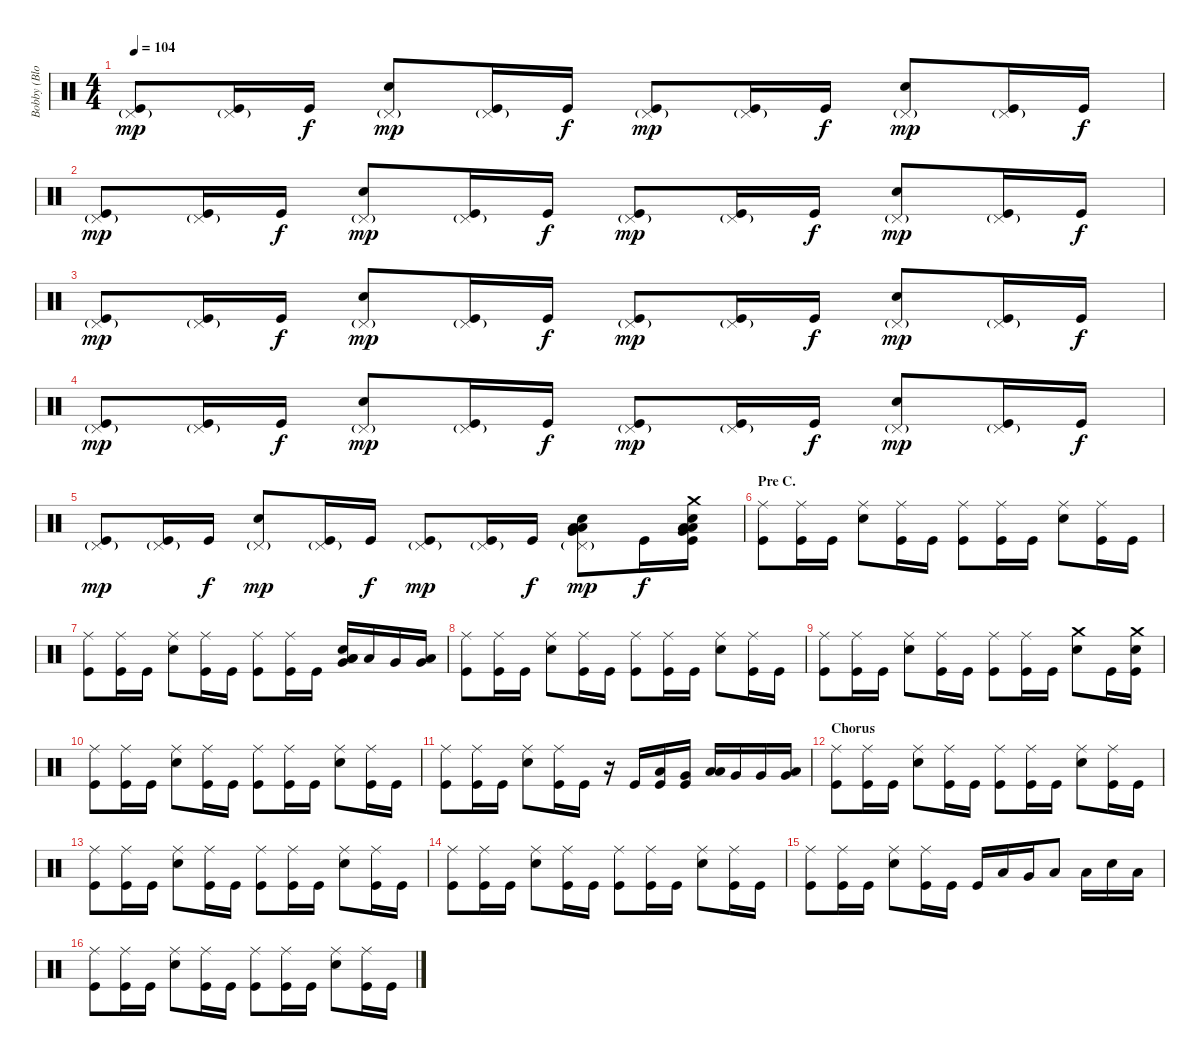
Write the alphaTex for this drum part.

\track ("Bobby (Blotz) Blotzer - Drums" "Bobby (Blo") {instrument percussion}
\staff {score}
\articulation defaults
\ts (4 4)
\tempo 104
\clef neutral
\ks c
("Pedal Hi-Hat (hit)"{g} "Kick (hit)").8{dy mp} ("Pedal Hi-Hat (hit)"{g} "Kick (hit)").16 "Kick (hit)".16{dy f} ("Pedal Hi-Hat (hit)"{g} "Snare (hit) 2").8{dy mp} ("Pedal Hi-Hat (hit)"{g} "Kick (hit)").16 "Kick (hit)".16{dy f} ("Pedal Hi-Hat (hit)"{g} "Kick (hit)").8{dy mp} ("Pedal Hi-Hat (hit)"{g} "Kick (hit)").16 "Kick (hit)".16{dy f} ("Pedal Hi-Hat (hit)"{g} "Snare (hit) 2").8{dy mp} ("Pedal Hi-Hat (hit)"{g} "Kick (hit)").16 "Kick (hit)".16{dy f} |
("Pedal Hi-Hat (hit)"{g} "Kick (hit)").8{dy mp} ("Pedal Hi-Hat (hit)"{g} "Kick (hit)").16 "Kick (hit)".16{dy f} ("Pedal Hi-Hat (hit)"{g} "Snare (hit) 2").8{dy mp} ("Pedal Hi-Hat (hit)"{g} "Kick (hit)").16 "Kick (hit)".16{dy f} ("Pedal Hi-Hat (hit)"{g} "Kick (hit)").8{dy mp} ("Pedal Hi-Hat (hit)"{g} "Kick (hit)").16 "Kick (hit)".16{dy f} ("Pedal Hi-Hat (hit)"{g} "Snare (hit) 2").8{dy mp} ("Pedal Hi-Hat (hit)"{g} "Kick (hit)").16 "Kick (hit)".16{dy f} |
("Pedal Hi-Hat (hit)"{g} "Kick (hit)").8{dy mp} ("Pedal Hi-Hat (hit)"{g} "Kick (hit)").16 "Kick (hit)".16{dy f} ("Pedal Hi-Hat (hit)"{g} "Snare (hit) 2").8{dy mp} ("Pedal Hi-Hat (hit)"{g} "Kick (hit)").16 "Kick (hit)".16{dy f} ("Pedal Hi-Hat (hit)"{g} "Kick (hit)").8{dy mp} ("Pedal Hi-Hat (hit)"{g} "Kick (hit)").16 "Kick (hit)".16{dy f} ("Pedal Hi-Hat (hit)"{g} "Snare (hit) 2").8{dy mp} ("Pedal Hi-Hat (hit)"{g} "Kick (hit)").16 "Kick (hit)".16{dy f} |
("Pedal Hi-Hat (hit)"{g} "Kick (hit)").8{dy mp} ("Pedal Hi-Hat (hit)"{g} "Kick (hit)").16 "Kick (hit)".16{dy f} ("Pedal Hi-Hat (hit)"{g} "Snare (hit) 2").8{dy mp} ("Pedal Hi-Hat (hit)"{g} "Kick (hit)").16 "Kick (hit)".16{dy f} ("Pedal Hi-Hat (hit)"{g} "Kick (hit)").8{dy mp} ("Pedal Hi-Hat (hit)"{g} "Kick (hit)").16 "Kick (hit)".16{dy f} ("Pedal Hi-Hat (hit)"{g} "Snare (hit) 2").8{dy mp} ("Pedal Hi-Hat (hit)"{g} "Kick (hit)").16 "Kick (hit)".16{dy f} |
("Pedal Hi-Hat (hit)"{g} "Kick (hit)").8{dy mp} ("Pedal Hi-Hat (hit)"{g} "Kick (hit)").16 "Kick (hit)".16{dy f} ("Pedal Hi-Hat (hit)"{g} "Snare (hit) 2").8{dy mp} ("Pedal Hi-Hat (hit)"{g} "Kick (hit)").16 "Kick (hit)".16{dy f} ("Pedal Hi-Hat (hit)"{g} "Kick (hit)").8{dy mp} ("Pedal Hi-Hat (hit)"{g} "Kick (hit)").16 "Kick (hit)".16{dy f} ("Pedal Hi-Hat (hit)"{g} "Very Low Tom (hit)" "Low Tom (hit)" "Snare (hit) 2" "Low Floor Tom (hit)").8{dy mp} "Kick (hit)".16{dy f} ("Crash medium (hit)" "Very Low Tom (hit)" "Low Tom (hit)" "Snare (hit) 2" "Low Floor Tom (hit)" "Kick (hit)").16 |
\section ("" "Pre C.")
("Ride (middle)" "Kick (hit)").8 ("Ride (middle)" "Kick (hit)").16 "Kick (hit)".16 ("Ride (middle)" "Snare (hit) 2").8 ("Ride (middle)" "Kick (hit)").16 "Kick (hit)".16 ("Ride (middle)" "Kick (hit)").8 ("Ride (middle)" "Kick (hit)").16 "Kick (hit)".16 ("Ride (middle)" "Snare (hit) 2").8 ("Ride (middle)" "Kick (hit)").16 "Kick (hit)".16 |
("Ride (middle)" "Kick (hit)").8 ("Ride (middle)" "Kick (hit)").16 "Kick (hit)".16 ("Ride (middle)" "Snare (hit) 2").8 ("Ride (middle)" "Kick (hit)").16 "Kick (hit)".16 ("Ride (middle)" "Kick (hit)").8 ("Ride (middle)" "Kick (hit)").16 "Kick (hit)".16 ("Very Low Tom (hit)" "Low Tom (hit)" "Snare (hit) 2" "Low Floor Tom (hit)").16 "Low Tom (hit)".16 "Very Low Tom (hit)".16 ("Very Low Tom (hit)" "Low Floor Tom (hit)").16 |
("Ride (middle)" "Kick (hit)").8 ("Ride (middle)" "Kick (hit)").16 "Kick (hit)".16 ("Ride (middle)" "Snare (hit) 2").8 ("Ride (middle)" "Kick (hit)").16 "Kick (hit)".16 ("Ride (middle)" "Kick (hit)").8 ("Ride (middle)" "Kick (hit)").16 "Kick (hit)".16 ("Ride (middle)" "Snare (hit) 2").8 ("Ride (middle)" "Kick (hit)").16 "Kick (hit)".16 |
("Ride (middle)" "Kick (hit)").8 ("Ride (middle)" "Kick (hit)").16 "Kick (hit)".16 ("Ride (middle)" "Snare (hit) 2").8 ("Ride (middle)" "Kick (hit)").16 "Kick (hit)".16 ("Ride (middle)" "Kick (hit)").8 ("Ride (middle)" "Kick (hit)").16 "Kick (hit)".16 ("Crash medium (hit)" "Snare (hit) 2").8 "Kick (hit)".16 ("Crash medium (hit)" "Snare (hit) 2" "Kick (hit)").16 |
("Ride (middle)" "Kick (hit)").8 ("Ride (middle)" "Kick (hit)").16 "Kick (hit)".16 ("Ride (middle)" "Snare (hit) 2").8 ("Ride (middle)" "Kick (hit)").16 "Kick (hit)".16 ("Ride (middle)" "Kick (hit)").8 ("Ride (middle)" "Kick (hit)").16 "Kick (hit)".16 ("Ride (middle)" "Snare (hit) 2").8 ("Ride (middle)" "Kick (hit)").16 "Kick (hit)".16 |
("Ride (middle)" "Kick (hit)").8 ("Ride (middle)" "Kick (hit)").16 "Kick (hit)".16 ("Ride (middle)" "Snare (hit) 2").8 ("Ride (middle)" "Kick (hit)").16 "Kick (hit)".16 r.16 "Kick (hit)".16 ("Low Tom (hit)" "Kick (hit)").16 ("Very Low Tom (hit)" "Kick (hit)").16 ("Low Tom (hit)" "Low Floor Tom (hit)").16 "Very Low Tom (hit)".16 "Very Low Tom (hit)".16 ("Very Low Tom (hit)" "Low Floor Tom (hit)").16 |
\section ("" "Chorus")
("Ride (middle)" "Kick (hit)").8 ("Ride (middle)" "Kick (hit)").16 "Kick (hit)".16 ("Ride (middle)" "Snare (hit) 2").8 ("Ride (middle)" "Kick (hit)").16 "Kick (hit)".16 ("Ride (middle)" "Kick (hit)").8 ("Ride (middle)" "Kick (hit)").16 "Kick (hit)".16 ("Ride (middle)" "Snare (hit) 2").8 ("Ride (middle)" "Kick (hit)").16 "Kick (hit)".16 |
("Ride (middle)" "Kick (hit)").8 ("Ride (middle)" "Kick (hit)").16 "Kick (hit)".16 ("Ride (middle)" "Snare (hit) 2").8 ("Ride (middle)" "Kick (hit)").16 "Kick (hit)".16 ("Ride (middle)" "Kick (hit)").8 ("Ride (middle)" "Kick (hit)").16 "Kick (hit)".16 ("Ride (middle)" "Snare (hit) 2").8 ("Ride (middle)" "Kick (hit)").16 "Kick (hit)".16 |
("Ride (middle)" "Kick (hit)").8 ("Ride (middle)" "Kick (hit)").16 "Kick (hit)".16 ("Ride (middle)" "Snare (hit) 2").8 ("Ride (middle)" "Kick (hit)").16 "Kick (hit)".16 ("Ride (middle)" "Kick (hit)").8 ("Ride (middle)" "Kick (hit)").16 "Kick (hit)".16 ("Ride (middle)" "Snare (hit) 2").8 ("Ride (middle)" "Kick (hit)").16 "Kick (hit)".16 |
("Ride (middle)" "Kick (hit)").8 ("Ride (middle)" "Kick (hit)").16 "Kick (hit)".16 ("Ride (middle)" "Snare (hit) 2").8 ("Ride (middle)" "Kick (hit)").16 "Kick (hit)".16 "Kick (hit)".16 "Low Tom (hit)".16 "Very Low Tom (hit)".16 "Low Tom (hit)".8 "Low Floor Tom (hit)".16 "Snare (hit) 2".16 "Low Tom (hit)".16 |
("Ride (middle)" "Kick (hit)").8 ("Ride (middle)" "Kick (hit)").16 "Kick (hit)".16 ("Ride (middle)" "Snare (hit) 2").8 ("Ride (middle)" "Kick (hit)").16 "Kick (hit)".16 ("Ride (middle)" "Kick (hit)").8 ("Ride (middle)" "Kick (hit)").16 "Kick (hit)".16 ("Ride (middle)" "Snare (hit) 2").8 ("Ride (middle)" "Kick (hit)").16 "Kick (hit)".16
